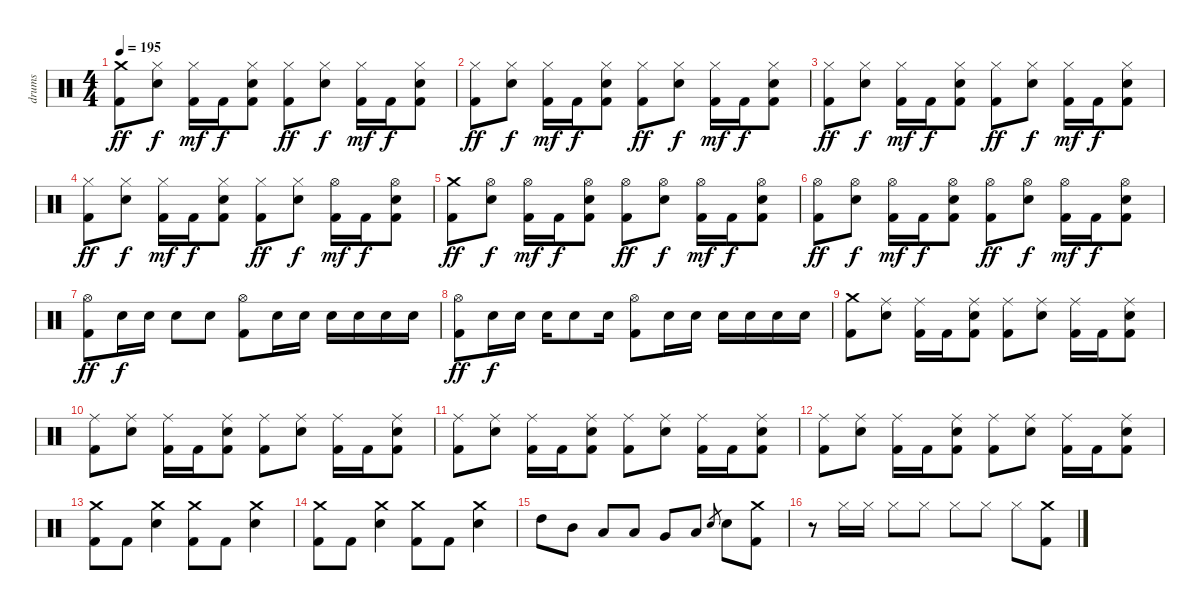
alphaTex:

\track ("drums" "drums") {instrument percussion}
\staff {score}
\articulation defaults
\ts (4 4)
\tempo 195
\clef neutral
\ks c
("Crash medium (hit)" "Kick (hit) 2").8{dy ff} ("Hi-Hat (closed)" "Electric Snare (hit)").8{dy f} ("Hi-Hat (closed)" "Kick (hit) 2").16{dy mf} "Kick (hit) 2".16{dy f} ("Hi-Hat (closed)" "Electric Snare (hit)" "Kick (hit) 2").8 ("Hi-Hat (closed)" "Kick (hit) 2").8{dy ff} ("Hi-Hat (closed)" "Electric Snare (hit)").8{dy f} ("Hi-Hat (closed)" "Kick (hit) 2").16{dy mf} "Kick (hit) 2".16{dy f} ("Hi-Hat (closed)" "Electric Snare (hit)" "Kick (hit) 2").8 |
("Hi-Hat (closed)" "Kick (hit) 2").8{dy ff} ("Hi-Hat (closed)" "Electric Snare (hit)").8{dy f} ("Hi-Hat (closed)" "Kick (hit) 2").16{dy mf} "Kick (hit) 2".16{dy f} ("Hi-Hat (closed)" "Electric Snare (hit)" "Kick (hit) 2").8 ("Hi-Hat (closed)" "Kick (hit) 2").8{dy ff} ("Hi-Hat (closed)" "Electric Snare (hit)").8{dy f} ("Hi-Hat (closed)" "Kick (hit) 2").16{dy mf} "Kick (hit) 2".16{dy f} ("Hi-Hat (closed)" "Electric Snare (hit)" "Kick (hit) 2").8 |
("Hi-Hat (closed)" "Kick (hit) 2").8{dy ff} ("Hi-Hat (closed)" "Electric Snare (hit)").8{dy f} ("Hi-Hat (closed)" "Kick (hit) 2").16{dy mf} "Kick (hit) 2".16{dy f} ("Hi-Hat (closed)" "Electric Snare (hit)" "Kick (hit) 2").8 ("Hi-Hat (closed)" "Kick (hit) 2").8{dy ff} ("Hi-Hat (closed)" "Electric Snare (hit)").8{dy f} ("Hi-Hat (closed)" "Kick (hit) 2").16{dy mf} "Kick (hit) 2".16{dy f} ("Hi-Hat (closed)" "Electric Snare (hit)" "Kick (hit) 2").8 |
("Hi-Hat (closed)" "Kick (hit) 2").8{dy ff} ("Hi-Hat (closed)" "Electric Snare (hit)").8{dy f} ("Hi-Hat (closed)" "Kick (hit) 2").16{dy mf} "Kick (hit) 2".16{dy f} ("Hi-Hat (closed)" "Electric Snare (hit)" "Kick (hit) 2").8 ("Hi-Hat (closed)" "Kick (hit) 2").8{dy ff} ("Hi-Hat (closed)" "Electric Snare (hit)").8{dy f} ("Hi-Hat (open)" "Kick (hit) 2").16{dy mf} "Kick (hit) 2".16{dy f} ("Hi-Hat (open)" "Electric Snare (hit)" "Kick (hit) 2").8 |
("Crash medium (hit)" "Kick (hit) 2").8{dy ff} ("Hi-Hat (open)" "Electric Snare (hit)").8{dy f} ("Hi-Hat (open)" "Kick (hit) 2").16{dy mf} "Kick (hit) 2".16{dy f} ("Hi-Hat (open)" "Electric Snare (hit)" "Kick (hit) 2").8 ("Hi-Hat (open)" "Kick (hit) 2").8{dy ff} ("Hi-Hat (open)" "Electric Snare (hit)").8{dy f} ("Hi-Hat (open)" "Kick (hit) 2").16{dy mf} "Kick (hit) 2".16{dy f} ("Hi-Hat (open)" "Electric Snare (hit)" "Kick (hit) 2").8 |
("Hi-Hat (open)" "Kick (hit) 2").8{dy ff} ("Hi-Hat (open)" "Electric Snare (hit)").8{dy f} ("Hi-Hat (open)" "Kick (hit) 2").16{dy mf} "Kick (hit) 2".16{dy f} ("Hi-Hat (open)" "Electric Snare (hit)" "Kick (hit) 2").8 ("Hi-Hat (open)" "Kick (hit) 2").8{dy ff} ("Hi-Hat (open)" "Electric Snare (hit)").8{dy f} ("Hi-Hat (open)" "Kick (hit) 2").16{dy mf} "Kick (hit) 2".16{dy f} ("Hi-Hat (open)" "Electric Snare (hit)" "Kick (hit) 2").8 |
("Hi-Hat (open)" "Kick (hit) 2").8{dy ff} "Electric Snare (hit)".16{dy f} "Electric Snare (hit)".16 "Electric Snare (hit)".8 "Electric Snare (hit)".8 ("Hi-Hat (open)" "Kick (hit) 2").8 "Electric Snare (hit)".16 "Electric Snare (hit)".16 "Electric Snare (hit)".16 "Electric Snare (hit)".16 "Electric Snare (hit)".16 "Electric Snare (hit)".16 |
("Hi-Hat (open)" "Kick (hit) 2").8{dy ff} "Electric Snare (hit)".16{dy f} "Electric Snare (hit)".16 "Electric Snare (hit)".16 "Electric Snare (hit)".8 "Electric Snare (hit)".16 ("Hi-Hat (open)" "Kick (hit) 2").8 "Electric Snare (hit)".16 "Electric Snare (hit)".16 "Electric Snare (hit)".16 "Electric Snare (hit)".16 "Electric Snare (hit)".16 "Electric Snare (hit)".16 |
("Crash medium (hit)" "Kick (hit) 2").8 ("Ride (middle)" "Electric Snare (hit)").8 ("Ride (middle)" "Kick (hit) 2").16 "Kick (hit) 2".16 ("Ride (middle)" "Electric Snare (hit)" "Kick (hit) 2").8 ("Ride (middle)" "Kick (hit) 2").8 ("Ride (middle)" "Electric Snare (hit)").8 ("Ride (middle)" "Kick (hit) 2").16 "Kick (hit) 2".16 ("Ride (middle)" "Electric Snare (hit)" "Kick (hit) 2").8 |
("Ride (middle)" "Kick (hit) 2").8 ("Ride (middle)" "Electric Snare (hit)").8 ("Ride (middle)" "Kick (hit) 2").16 "Kick (hit) 2".16 ("Ride (middle)" "Electric Snare (hit)" "Kick (hit) 2").8 ("Ride (middle)" "Kick (hit) 2").8 ("Ride (middle)" "Electric Snare (hit)").8 ("Ride (middle)" "Kick (hit) 2").16 "Kick (hit) 2".16 ("Ride (middle)" "Electric Snare (hit)" "Kick (hit) 2").8 |
("Ride (middle)" "Kick (hit) 2").8 ("Ride (middle)" "Electric Snare (hit)").8 ("Ride (middle)" "Kick (hit) 2").16 "Kick (hit) 2".16 ("Ride (middle)" "Electric Snare (hit)" "Kick (hit) 2").8 ("Ride (middle)" "Kick (hit) 2").8 ("Ride (middle)" "Electric Snare (hit)").8 ("Ride (middle)" "Kick (hit) 2").16 "Kick (hit) 2".16 ("Ride (middle)" "Electric Snare (hit)" "Kick (hit) 2").8 |
("Ride (middle)" "Kick (hit) 2").8 ("Ride (middle)" "Electric Snare (hit)").8 ("Ride (middle)" "Kick (hit) 2").16 "Kick (hit) 2".16 ("Ride (middle)" "Electric Snare (hit)" "Kick (hit) 2").8 ("Ride (middle)" "Kick (hit) 2").8 ("Ride (middle)" "Electric Snare (hit)").8 ("Ride (middle)" "Kick (hit) 2").16 "Kick (hit) 2".16 ("Ride (middle)" "Electric Snare (hit)" "Kick (hit) 2").8 |
("Crash medium (hit)" "Kick (hit) 2").8 "Kick (hit) 2".8 ("Crash medium (hit)" "Electric Snare (hit)").4 ("Crash medium (hit)" "Kick (hit) 2").8 "Kick (hit) 2".8 ("Crash medium (hit)" "Electric Snare (hit)").4 |
("Crash medium (hit)" "Kick (hit) 2").8 "Kick (hit) 2".8 ("Crash medium (hit)" "Electric Snare (hit)").4 ("Crash medium (hit)" "Kick (hit) 2").8 "Kick (hit) 2".8 ("Crash medium (hit)" "Electric Snare (hit)").4 |
"High Tom (hit)".8 "Mid Tom (hit)".8 "Low Tom (hit)".8 "Low Tom (hit)".8 "Very Low Tom (hit)".8 "Low Floor Tom (hit)".8 "Electric Snare (hit)".8{gr} "Electric Snare (hit)".8 ("Crash medium (hit)" "Kick (hit) 2").8 |
r.8 "Hi-Hat (closed)".16 "Hi-Hat (closed)".16 "Hi-Hat (closed)".8 "Hi-Hat (closed)".8 "Hi-Hat (closed)".8 "Hi-Hat (closed)".8 "Hi-Hat (closed)".8 ("Crash medium (hit)" "Kick (hit) 2").8
